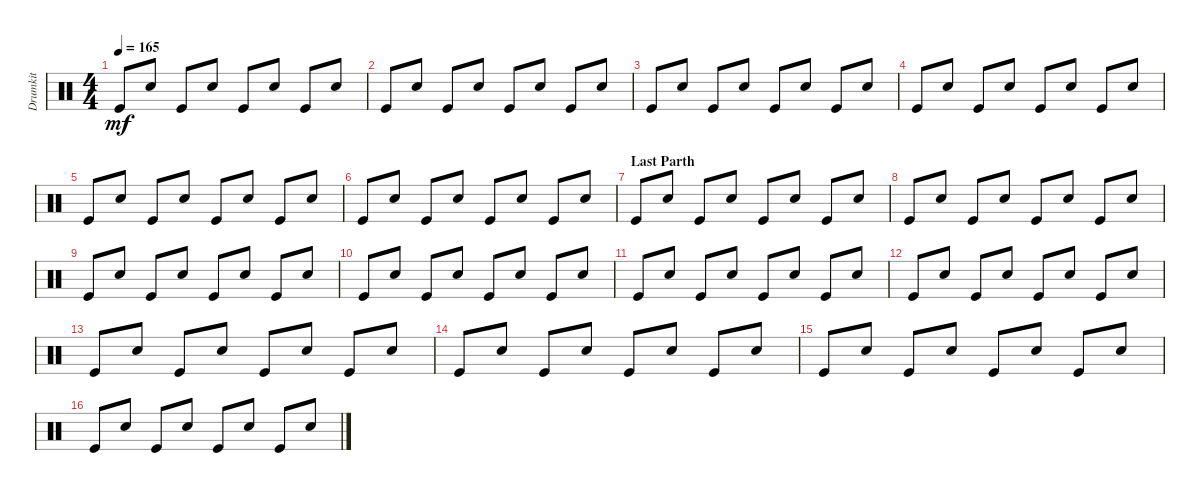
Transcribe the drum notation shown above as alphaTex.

\track ("Drumkit" "Drumkit") {instrument percussion}
\staff {score}
\articulation defaults
\ts (4 4)
\tempo 165
\clef neutral
\ks c "Kick (hit)".8{dy mf} "Electric Snare (hit)".8 "Kick (hit)".8 "Electric Snare (hit)".8 "Kick (hit)".8 "Electric Snare (hit)".8 "Kick (hit)".8 "Electric Snare (hit)".8
|
"Kick (hit)".8 "Electric Snare (hit)".8 "Kick (hit)".8 "Electric Snare (hit)".8 "Kick (hit)".8 "Electric Snare (hit)".8 "Kick (hit)".8 "Electric Snare (hit)".8 |
"Kick (hit)".8 "Electric Snare (hit)".8 "Kick (hit)".8 "Electric Snare (hit)".8 "Kick (hit)".8 "Electric Snare (hit)".8 "Kick (hit)".8 "Electric Snare (hit)".8 |
"Kick (hit)".8 "Electric Snare (hit)".8 "Kick (hit)".8 "Electric Snare (hit)".8 "Kick (hit)".8 "Electric Snare (hit)".8 "Kick (hit)".8 "Electric Snare (hit)".8 |
"Kick (hit)".8 "Electric Snare (hit)".8 "Kick (hit)".8 "Electric Snare (hit)".8 "Kick (hit)".8 "Electric Snare (hit)".8 "Kick (hit)".8 "Electric Snare (hit)".8 |
"Kick (hit)".8 "Electric Snare (hit)".8 "Kick (hit)".8 "Electric Snare (hit)".8 "Kick (hit)".8 "Electric Snare (hit)".8 "Kick (hit)".8 "Electric Snare (hit)".8 |
\section ("" "Last Parth")
"Kick (hit)".8 "Electric Snare (hit)".8 "Kick (hit)".8 "Electric Snare (hit)".8 "Kick (hit)".8 "Electric Snare (hit)".8 "Kick (hit)".8 "Electric Snare (hit)".8 |
"Kick (hit)".8 "Electric Snare (hit)".8 "Kick (hit)".8 "Electric Snare (hit)".8 "Kick (hit)".8 "Electric Snare (hit)".8 "Kick (hit)".8 "Electric Snare (hit)".8 |
"Kick (hit)".8 "Electric Snare (hit)".8 "Kick (hit)".8 "Electric Snare (hit)".8 "Kick (hit)".8 "Electric Snare (hit)".8 "Kick (hit)".8 "Electric Snare (hit)".8 |
"Kick (hit)".8 "Electric Snare (hit)".8 "Kick (hit)".8 "Electric Snare (hit)".8 "Kick (hit)".8 "Electric Snare (hit)".8 "Kick (hit)".8 "Electric Snare (hit)".8 |
"Kick (hit)".8 "Electric Snare (hit)".8 "Kick (hit)".8 "Electric Snare (hit)".8 "Kick (hit)".8 "Electric Snare (hit)".8 "Kick (hit)".8 "Electric Snare (hit)".8 |
"Kick (hit)".8 "Electric Snare (hit)".8 "Kick (hit)".8 "Electric Snare (hit)".8 "Kick (hit)".8 "Electric Snare (hit)".8 "Kick (hit)".8 "Electric Snare (hit)".8 |
"Kick (hit)".8 "Electric Snare (hit)".8 "Kick (hit)".8 "Electric Snare (hit)".8 "Kick (hit)".8 "Electric Snare (hit)".8 "Kick (hit)".8 "Electric Snare (hit)".8 |
"Kick (hit)".8 "Electric Snare (hit)".8 "Kick (hit)".8 "Electric Snare (hit)".8 "Kick (hit)".8 "Electric Snare (hit)".8 "Kick (hit)".8 "Electric Snare (hit)".8 |
"Kick (hit)".8 "Electric Snare (hit)".8 "Kick (hit)".8 "Electric Snare (hit)".8 "Kick (hit)".8 "Electric Snare (hit)".8 "Kick (hit)".8 "Electric Snare (hit)".8 |
"Kick (hit)".8 "Electric Snare (hit)".8 "Kick (hit)".8 "Electric Snare (hit)".8 "Kick (hit)".8 "Electric Snare (hit)".8 "Kick (hit)".8 "Electric Snare (hit)".8
